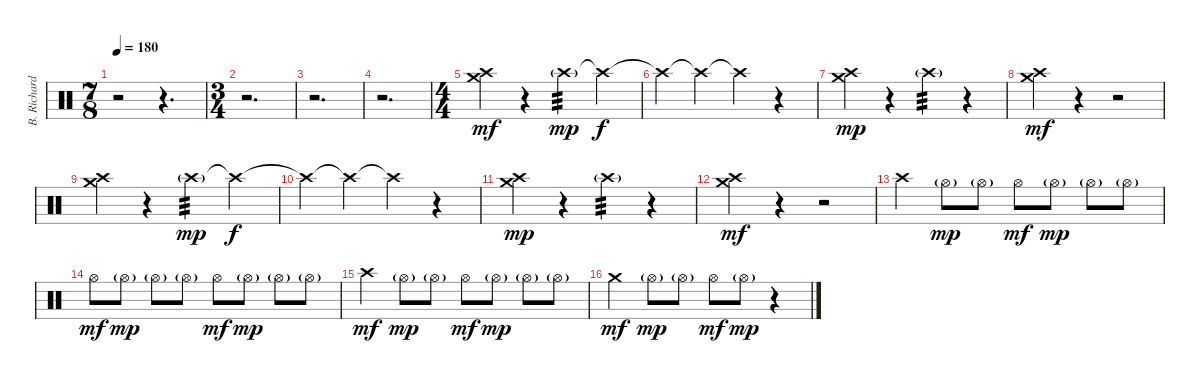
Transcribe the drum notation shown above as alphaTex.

\track ("B. Richardson Drums" "B. Richard") {instrument percussion}
\staff {score}
\articulation defaults
\ts (7 8)
\tempo 180
\clef neutral
\ks c
r.2{dy mf} r.4{d} |
\ts (3 4)
r.2{d} |
r.2{d} |
r.2{d} |
\ts (4 4)
("Crash high (hit)" "Crash medium (hit)").4 r.4 "Crash high (hit)"{g}.4{tp 3 dy mp} "Crash high (hit)"{t}.4{dy f} |
"Crash high (hit)"{t}.4 "Crash high (hit)"{t}.4 "Crash high (hit)"{t}.4 r.4 |
("Crash high (hit)" "Crash medium (hit)").4{dy mp} r.4 "Crash high (hit)"{g}.4{tp 3} r.4 |
("Crash high (hit)" "Crash medium (hit)").4{dy mf} r.4 r.2 |
("Crash high (hit)" "Crash medium (hit)").4 r.4 "Crash high (hit)"{g}.4{tp 3 dy mp} "Crash high (hit)"{t}.4{dy f} |
"Crash high (hit)"{t}.4 "Crash high (hit)"{t}.4 "Crash high (hit)"{t}.4 r.4 |
("Crash high (hit)" "Crash medium (hit)").4{dy mp} r.4 "Crash high (hit)"{g}.4{tp 3} r.4 |
("Crash high (hit)" "Crash medium (hit)").4{dy mf} r.4 r.2 |
"Crash high (hit)".4 "Hi-Hat (open)"{g}.8{dy mp} "Hi-Hat (open)"{g}.8 "Hi-Hat (open)".8{dy mf} "Hi-Hat (open)"{g}.8{dy mp} "Hi-Hat (open)"{g}.8 "Hi-Hat (open)"{g}.8 |
"Hi-Hat (open)".8{dy mf} "Hi-Hat (open)"{g}.8{dy mp} "Hi-Hat (open)"{g}.8 "Hi-Hat (open)"{g}.8 "Hi-Hat (open)".8{dy mf} "Hi-Hat (open)"{g}.8{dy mp} "Hi-Hat (open)"{g}.8 "Hi-Hat (open)"{g}.8 |
"Crash high (hit)".4{dy mf} "Hi-Hat (open)"{g}.8{dy mp} "Hi-Hat (open)"{g}.8 "Hi-Hat (open)".8{dy mf} "Hi-Hat (open)"{g}.8{dy mp} "Hi-Hat (open)"{g}.8 "Hi-Hat (open)"{g}.8 |
"Crash medium (hit)".4{dy mf} "Hi-Hat (open)"{g}.8{dy mp} "Hi-Hat (open)"{g}.8 "Hi-Hat (open)".8{dy mf} "Hi-Hat (open)"{g}.8{dy mp} r.4
